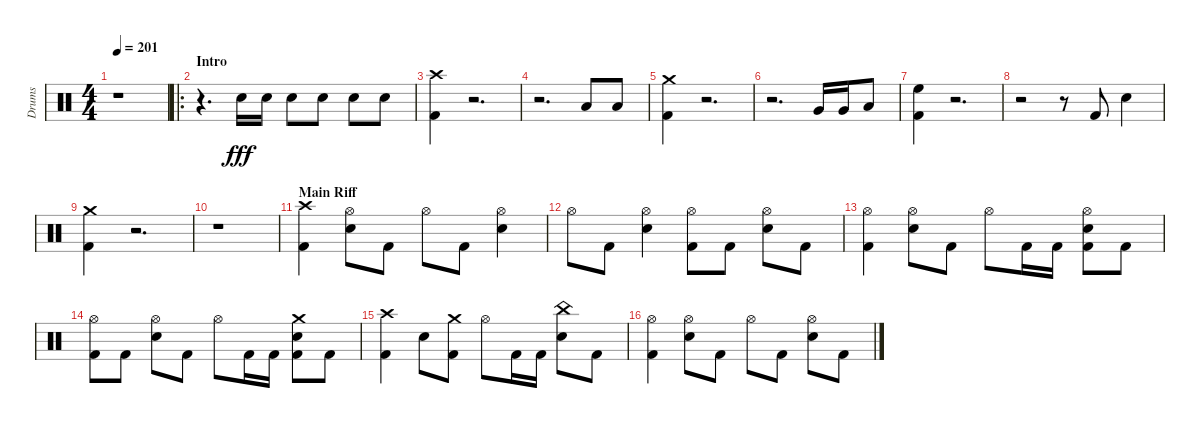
\track ("Drums" "Drums") {instrument percussion}
\staff {score}
\articulation defaults
\ts (4 4)
\tempo 201
\clef neutral
\ks aminor
r.1{dy fff} |
\ro
\section ("" "Intro")
r.4{d} "Snare (hit) 2".16 "Snare (hit) 2".16 "Snare (hit) 2".8 "Snare (hit) 2".8 "Snare (hit) 2".8 "Snare (hit) 2".8 |
("Kick (hit) 2" "Crash high (hit)").4 r.2{d} |
r.2{d} "Low Floor Tom (hit)".8 "Low Floor Tom (hit)".8 |
("Kick (hit) 2" "Crash medium (hit)").4 r.2{d} |
r.2{d} "Very Low Tom (hit)".16 "Very Low Tom (hit)".16 "Low Floor Tom (hit)".8 |
("Kick (hit) 2" "High Floor Tom (hit)").4 r.2{d} |
r.2 r.8 "Kick (hit) 2".8 "Snare (hit) 2".4 |
("Kick (hit) 2" "Crash medium (hit)").4 r.2{d} |
r.1 |
\section ("" "Main Riff")
("Kick (hit) 2" "Crash high (hit)").4 ("Snare (hit) 2" "Hi-Hat (open)").8 "Kick (hit) 2".8 "Hi-Hat (open)".8 "Kick (hit) 2".8 ("Snare (hit) 2" "Hi-Hat (open)").4 |
"Hi-Hat (open)".8 "Kick (hit) 2".8 ("Snare (hit) 2" "Hi-Hat (open)").4 ("Kick (hit) 2" "Hi-Hat (open)").8 "Kick (hit) 2".8 ("Snare (hit) 2" "Hi-Hat (open)").8 "Kick (hit) 2".8 |
("Kick (hit) 2" "Hi-Hat (open)").4 ("Snare (hit) 2" "Hi-Hat (open)").8 "Kick (hit) 2".8 "Hi-Hat (open)".8 "Kick (hit) 2".16 "Kick (hit) 2".16 ("Kick (hit) 2" "Snare (hit) 2" "Hi-Hat (open)").8 "Kick (hit) 2".8 |
("Kick (hit) 2" "Hi-Hat (open)").8 "Kick (hit) 2".8 ("Snare (hit) 2" "Hi-Hat (open)").8 "Kick (hit) 2".8 "Hi-Hat (open)".8 "Kick (hit) 2".16 "Kick (hit) 2".16 ("Snare (hit) 2" "Kick (hit) 2" "Crash medium (hit)").8 "Kick (hit) 2".8 |
("Kick (hit) 2" "Crash high (hit)").4 "Snare (hit) 2".8 ("Kick (hit) 2" "Crash medium (hit)").8 "Hi-Hat (open)".8 "Kick (hit) 2".16 "Kick (hit) 2".16 ("Snare (hit) 2" "China (hit)").8 "Kick (hit) 2".8 |
("Kick (hit) 2" "Hi-Hat (open)").4 ("Snare (hit) 2" "Hi-Hat (open)").8 "Kick (hit) 2".8 "Hi-Hat (open)".8 "Kick (hit) 2".8 ("Snare (hit) 2" "Hi-Hat (open)").8 "Kick (hit) 2".8
